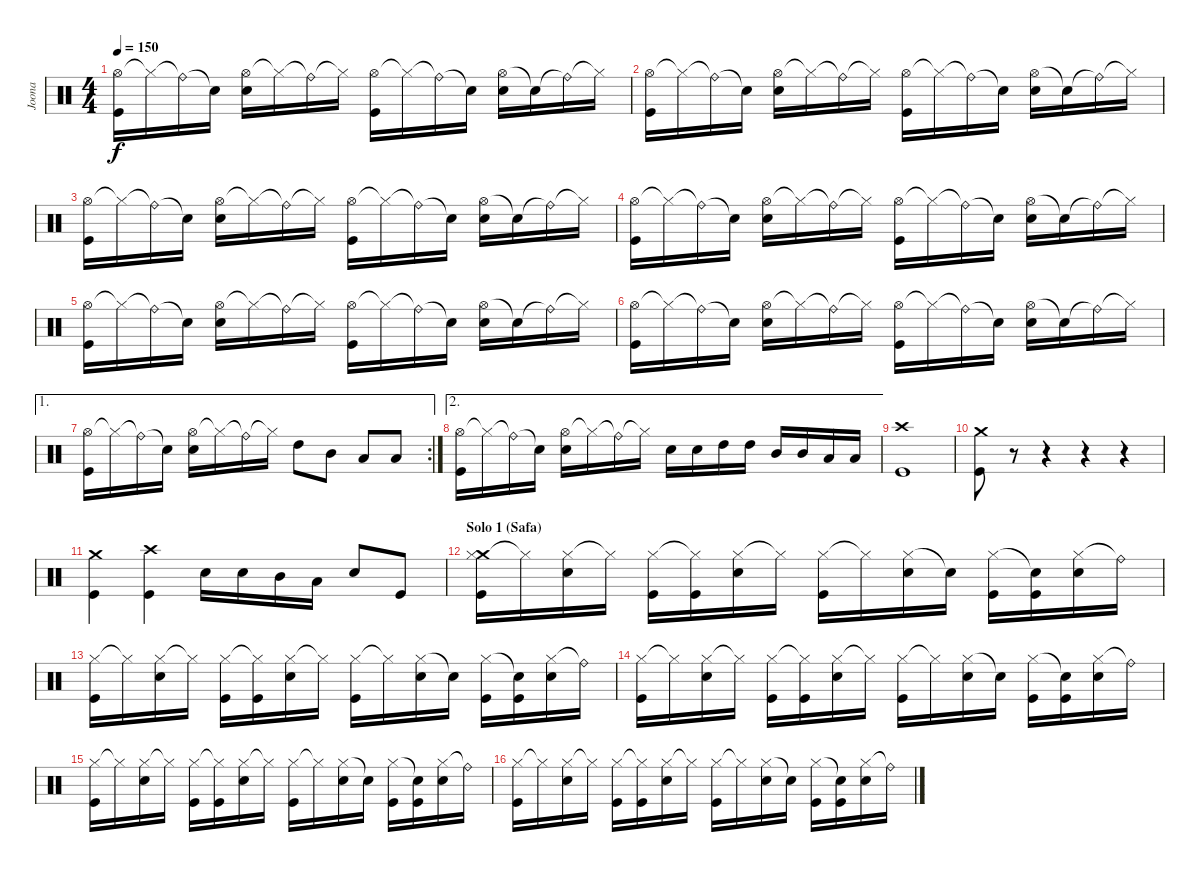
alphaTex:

\track ("Joona" "Joona") {instrument percussion}
\staff {score}
\articulation defaults
\ts (4 4)
\tempo 150
\clef neutral
\ks c
("Hi-Hat (open)" "Kick (hit)").16{dy f} "Hi-Hat (closed)"{t}.16 "Ride (bell)"{t}.16 "Snare (hit)"{t}.16 ("Hi-Hat (open)" "Snare (hit) 2").16 "Hi-Hat (closed)"{t}.16 "Ride (bell)"{t}.16 "Hi-Hat (closed)"{t}.16 ("Hi-Hat (open)" "Kick (hit)").16 "Hi-Hat (closed)"{t}.16 "Ride (bell)"{t}.16 "Snare (hit)"{t}.16 ("Hi-Hat (open)" "Snare (hit) 2").16 "Snare (hit)"{t}.16 "Ride (bell)"{t}.16 "Hi-Hat (closed)"{t}.16 |
("Hi-Hat (open)" "Kick (hit)").16 "Hi-Hat (closed)"{t}.16 "Ride (bell)"{t}.16 "Snare (hit)"{t}.16 ("Hi-Hat (open)" "Snare (hit) 2").16 "Hi-Hat (closed)"{t}.16 "Ride (bell)"{t}.16 "Hi-Hat (closed)"{t}.16 ("Hi-Hat (open)" "Kick (hit)").16 "Hi-Hat (closed)"{t}.16 "Ride (bell)"{t}.16 "Snare (hit)"{t}.16 ("Hi-Hat (open)" "Snare (hit) 2").16 "Snare (hit)"{t}.16 "Ride (bell)"{t}.16 "Hi-Hat (closed)"{t}.16 |
("Hi-Hat (open)" "Kick (hit)").16 "Hi-Hat (closed)"{t}.16 "Ride (bell)"{t}.16 "Snare (hit)"{t}.16 ("Hi-Hat (open)" "Snare (hit) 2").16 "Hi-Hat (closed)"{t}.16 "Ride (bell)"{t}.16 "Hi-Hat (closed)"{t}.16 ("Hi-Hat (open)" "Kick (hit)").16 "Hi-Hat (closed)"{t}.16 "Ride (bell)"{t}.16 "Snare (hit)"{t}.16 ("Hi-Hat (open)" "Snare (hit) 2").16 "Snare (hit)"{t}.16 "Ride (bell)"{t}.16 "Hi-Hat (closed)"{t}.16 |
("Hi-Hat (open)" "Kick (hit)").16 "Hi-Hat (closed)"{t}.16 "Ride (bell)"{t}.16 "Snare (hit)"{t}.16 ("Hi-Hat (open)" "Snare (hit) 2").16 "Hi-Hat (closed)"{t}.16 "Ride (bell)"{t}.16 "Hi-Hat (closed)"{t}.16 ("Hi-Hat (open)" "Kick (hit)").16 "Hi-Hat (closed)"{t}.16 "Ride (bell)"{t}.16 "Snare (hit)"{t}.16 ("Hi-Hat (open)" "Snare (hit) 2").16 "Snare (hit)"{t}.16 "Ride (bell)"{t}.16 "Hi-Hat (closed)"{t}.16 |
("Hi-Hat (open)" "Kick (hit)").16 "Hi-Hat (closed)"{t}.16 "Ride (bell)"{t}.16 "Snare (hit)"{t}.16 ("Hi-Hat (open)" "Snare (hit) 2").16 "Hi-Hat (closed)"{t}.16 "Ride (bell)"{t}.16 "Hi-Hat (closed)"{t}.16 ("Hi-Hat (open)" "Kick (hit)").16 "Hi-Hat (closed)"{t}.16 "Ride (bell)"{t}.16 "Snare (hit)"{t}.16 ("Hi-Hat (open)" "Snare (hit) 2").16 "Snare (hit)"{t}.16 "Ride (bell)"{t}.16 "Hi-Hat (closed)"{t}.16 |
("Hi-Hat (open)" "Kick (hit)").16 "Hi-Hat (closed)"{t}.16 "Ride (bell)"{t}.16 "Snare (hit)"{t}.16 ("Hi-Hat (open)" "Snare (hit) 2").16 "Hi-Hat (closed)"{t}.16 "Ride (bell)"{t}.16 "Hi-Hat (closed)"{t}.16 ("Hi-Hat (open)" "Kick (hit)").16 "Hi-Hat (closed)"{t}.16 "Ride (bell)"{t}.16 "Snare (hit)"{t}.16 ("Hi-Hat (open)" "Snare (hit) 2").16 "Snare (hit)"{t}.16 "Ride (bell)"{t}.16 "Hi-Hat (closed)"{t}.16 |
\ae 1
\rc 2
("Hi-Hat (open)" "Kick (hit)").16 "Hi-Hat (closed)"{t}.16 "Ride (bell)"{t}.16 "Snare (hit)"{t}.16 ("Hi-Hat (open)" "Snare (hit) 2").16 "Hi-Hat (closed)"{t}.16 "Ride (bell)"{t}.16 "Hi-Hat (closed)"{t}.16 "High Tom (hit)".8 "Mid Tom (hit)".8 "Low Tom (hit)".8 "Low Tom (hit)".8 |
\ae 2
("Hi-Hat (open)" "Kick (hit)").16 "Hi-Hat (closed)"{t}.16 "Ride (bell)"{t}.16 "Snare (hit)"{t}.16 ("Hi-Hat (open)" "Snare (hit) 2").16 "Hi-Hat (closed)"{t}.16 "Ride (bell)"{t}.16 "Hi-Hat (closed)"{t}.16 "Snare (hit) 2".16 "Snare (hit) 2".16 "High Tom (hit)".16 "High Tom (hit)".16 "Mid Tom (hit)".16 "Mid Tom (hit)".16 "Low Tom (hit)".16 "Low Tom (hit)".16 |
("Crash high (hit)" "Kick (hit)").1 |
("Crash medium (hit)" "Kick (hit)").8 r.8 r.4 r.4 r.4 |
("Crash medium (hit)" "Kick (hit)").4 ("Crash high (hit)" "Kick (hit)").4 "Snare (hit) 2".16 "Snare (hit) 2".16 "Mid Tom (hit)".16 "Low Tom (hit)".16 "Snare (hit) 2".8 "Kick (hit)".8 |
\section ("" "Solo 1 (Safa)")
("Crash medium (hit)" "Hi-Hat (closed)" "Kick (hit)").16 "Hi-Hat (closed)"{t}.16 ("Hi-Hat (closed)" "Snare (hit) 2").16 "Hi-Hat (closed)"{t}.16 ("Hi-Hat (closed)" "Kick (hit)").16 ("Hi-Hat (closed)"{t} "Kick (hit)").16 ("Hi-Hat (closed)" "Snare (hit) 2").16 "Hi-Hat (closed)"{t}.16 ("Hi-Hat (closed)" "Kick (hit)").16 "Hi-Hat (closed)"{t}.16 ("Hi-Hat (closed)" "Snare (hit) 2").16 "Snare (hit)"{t}.16 ("Hi-Hat (closed)" "Kick (hit)").16 ("Snare (hit)"{t} "Kick (hit)").16 ("Hi-Hat (closed)" "Snare (hit) 2").16 "Ride (bell)"{t}.16 |
("Hi-Hat (closed)" "Kick (hit)").16 "Hi-Hat (closed)"{t}.16 ("Hi-Hat (closed)" "Snare (hit) 2").16 "Hi-Hat (closed)"{t}.16 ("Hi-Hat (closed)" "Kick (hit)").16 ("Hi-Hat (closed)"{t} "Kick (hit)").16 ("Hi-Hat (closed)" "Snare (hit) 2").16 "Hi-Hat (closed)"{t}.16 ("Hi-Hat (closed)" "Kick (hit)").16 "Hi-Hat (closed)"{t}.16 ("Hi-Hat (closed)" "Snare (hit) 2").16 "Snare (hit)"{t}.16 ("Hi-Hat (closed)" "Kick (hit)").16 ("Snare (hit)"{t} "Kick (hit)").16 ("Hi-Hat (closed)" "Snare (hit) 2").16 "Ride (bell)"{t}.16 |
("Hi-Hat (closed)" "Kick (hit)").16 "Hi-Hat (closed)"{t}.16 ("Hi-Hat (closed)" "Snare (hit) 2").16 "Hi-Hat (closed)"{t}.16 ("Hi-Hat (closed)" "Kick (hit)").16 ("Hi-Hat (closed)"{t} "Kick (hit)").16 ("Hi-Hat (closed)" "Snare (hit) 2").16 "Hi-Hat (closed)"{t}.16 ("Hi-Hat (closed)" "Kick (hit)").16 "Hi-Hat (closed)"{t}.16 ("Hi-Hat (closed)" "Snare (hit) 2").16 "Snare (hit)"{t}.16 ("Hi-Hat (closed)" "Kick (hit)").16 ("Snare (hit)"{t} "Kick (hit)").16 ("Hi-Hat (closed)" "Snare (hit) 2").16 "Ride (bell)"{t}.16 |
("Hi-Hat (closed)" "Kick (hit)").16 "Hi-Hat (closed)"{t}.16 ("Hi-Hat (closed)" "Snare (hit) 2").16 "Hi-Hat (closed)"{t}.16 ("Hi-Hat (closed)" "Kick (hit)").16 ("Hi-Hat (closed)"{t} "Kick (hit)").16 ("Hi-Hat (closed)" "Snare (hit) 2").16 "Hi-Hat (closed)"{t}.16 ("Hi-Hat (closed)" "Kick (hit)").16 "Hi-Hat (closed)"{t}.16 ("Hi-Hat (closed)" "Snare (hit) 2").16 "Snare (hit)"{t}.16 ("Hi-Hat (closed)" "Kick (hit)").16 ("Snare (hit)"{t} "Kick (hit)").16 ("Hi-Hat (closed)" "Snare (hit) 2").16 "Ride (bell)"{t}.16 |
("Hi-Hat (closed)" "Kick (hit)").16 "Hi-Hat (closed)"{t}.16 ("Hi-Hat (closed)" "Snare (hit) 2").16 "Hi-Hat (closed)"{t}.16 ("Hi-Hat (closed)" "Kick (hit)").16 ("Hi-Hat (closed)"{t} "Kick (hit)").16 ("Hi-Hat (closed)" "Snare (hit) 2").16 "Hi-Hat (closed)"{t}.16 ("Hi-Hat (closed)" "Kick (hit)").16 "Hi-Hat (closed)"{t}.16 ("Hi-Hat (closed)" "Snare (hit) 2").16 "Snare (hit)"{t}.16 ("Hi-Hat (closed)" "Kick (hit)").16 ("Snare (hit)"{t} "Kick (hit)").16 ("Hi-Hat (closed)" "Snare (hit) 2").16 "Ride (bell)"{t}.16
